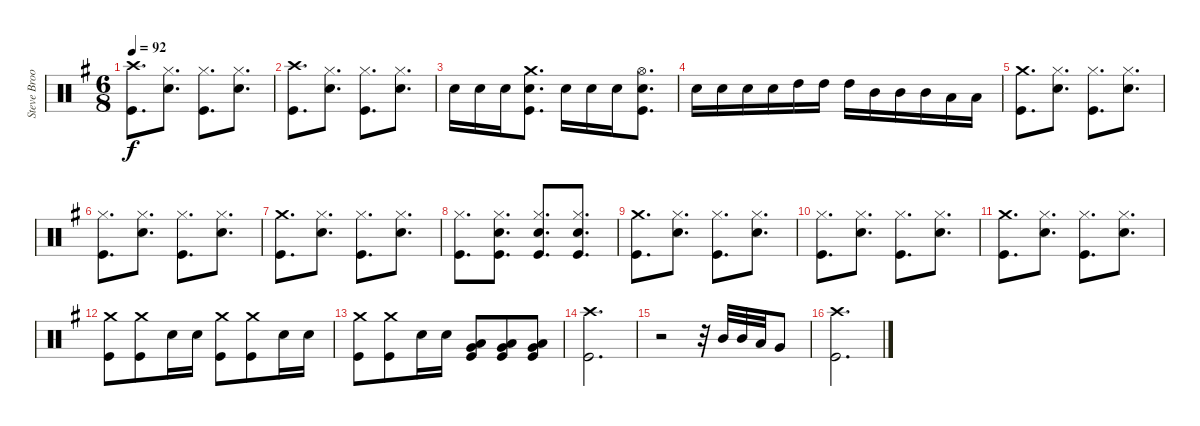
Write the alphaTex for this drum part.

\track ("Steve Brookins Drums" "Steve Broo") {instrument percussion}
\staff {score}
\articulation defaults
\ts (6 8)
\tempo 92
\clef neutral
\ks g
("Crash high (hit)" "Kick (hit)").8{d dy f} ("Hi-Hat (closed)" "Snare (hit) 2").8{d} ("Hi-Hat (closed)" "Kick (hit)").8{d} ("Hi-Hat (closed)" "Snare (hit) 2").8{d} |
("Crash high (hit)" "Kick (hit)").8{d} ("Hi-Hat (closed)" "Snare (hit) 2").8{d} ("Hi-Hat (closed)" "Kick (hit)").8{d} ("Hi-Hat (closed)" "Snare (hit) 2").8{d} |
"Snare (hit) 2".16 "Snare (hit) 2".16 "Snare (hit) 2".16 ("Crash medium (hit)" "Snare (hit) 2" "Kick (hit)").8{d} "Snare (hit) 2".16 "Snare (hit) 2".16 "Snare (hit) 2".16 ("Hi-Hat (open)" "Snare (hit) 2" "Kick (hit)").8{d} |
"Snare (hit) 2".16 "Snare (hit) 2".16 "Snare (hit) 2".16 "Snare (hit) 2".16 "High Tom (hit)".16 "High Tom (hit)".16 "High Tom (hit)".16 "Mid Tom (hit)".16 "Mid Tom (hit)".16 "Mid Tom (hit)".16 "Low Tom (hit)".16 "Low Tom (hit)".16 |
("Crash medium (hit)" "Kick (hit)").8{d} ("Hi-Hat (closed)" "Snare (hit) 2").8{d} ("Hi-Hat (closed)" "Kick (hit)").8{d} ("Hi-Hat (closed)" "Snare (hit) 2").8{d} |
("Hi-Hat (closed)" "Kick (hit)").8{d} ("Hi-Hat (closed)" "Snare (hit) 2").8{d} ("Hi-Hat (closed)" "Kick (hit)").8{d} ("Hi-Hat (closed)" "Snare (hit) 2").8{d} |
("Crash medium (hit)" "Kick (hit)").8{d} ("Hi-Hat (closed)" "Snare (hit) 2").8{d} ("Hi-Hat (closed)" "Kick (hit)").8{d} ("Hi-Hat (closed)" "Snare (hit) 2").8{d} |
("Hi-Hat (closed)" "Kick (hit)").8{d} ("Hi-Hat (closed)" "Snare (hit) 2" "Kick (hit)").8{d} ("Hi-Hat (closed)" "Snare (hit) 2" "Kick (hit)").8{d} ("Hi-Hat (closed)" "Snare (hit) 2" "Kick (hit)").8{d} |
("Crash medium (hit)" "Kick (hit)").8{d} ("Hi-Hat (closed)" "Snare (hit) 2").8{d} ("Hi-Hat (closed)" "Kick (hit)").8{d} ("Hi-Hat (closed)" "Snare (hit) 2").8{d} |
("Hi-Hat (closed)" "Kick (hit)").8{d} ("Hi-Hat (closed)" "Snare (hit) 2").8{d} ("Hi-Hat (closed)" "Kick (hit)").8{d} ("Hi-Hat (closed)" "Snare (hit) 2").8{d} |
("Crash medium (hit)" "Kick (hit)").8{d} ("Hi-Hat (closed)" "Snare (hit) 2").8{d} ("Hi-Hat (closed)" "Kick (hit)").8{d} ("Hi-Hat (closed)" "Snare (hit) 2").8{d} |
("Crash medium (hit)" "Kick (hit)").8 ("Crash medium (hit)" "Kick (hit)").8 "Snare (hit) 2".16 "Snare (hit) 2".16 ("Crash medium (hit)" "Kick (hit)").8 ("Crash medium (hit)" "Kick (hit)").8 "Snare (hit) 2".16 "Snare (hit) 2".16 |
("Crash medium (hit)" "Kick (hit)").8 ("Crash medium (hit)" "Kick (hit)").8 "Snare (hit) 2".16 "Snare (hit) 2".16 ("Very Low Tom (hit)" "Low Floor Tom (hit)" "Kick (hit)").8 ("Very Low Tom (hit)" "Low Floor Tom (hit)" "Kick (hit)").8 ("Very Low Tom (hit)" "Low Floor Tom (hit)" "Kick (hit)").8 |
("Crash high (hit)" "Kick (hit)").2{d} |
r.2 r.32 "Mid Tom (hit)".32 "Mid Tom (hit)".32 "Low Tom (hit)".32 "Very Low Tom (hit)".8 |
("Crash high (hit)" "Kick (hit)").2{d}
